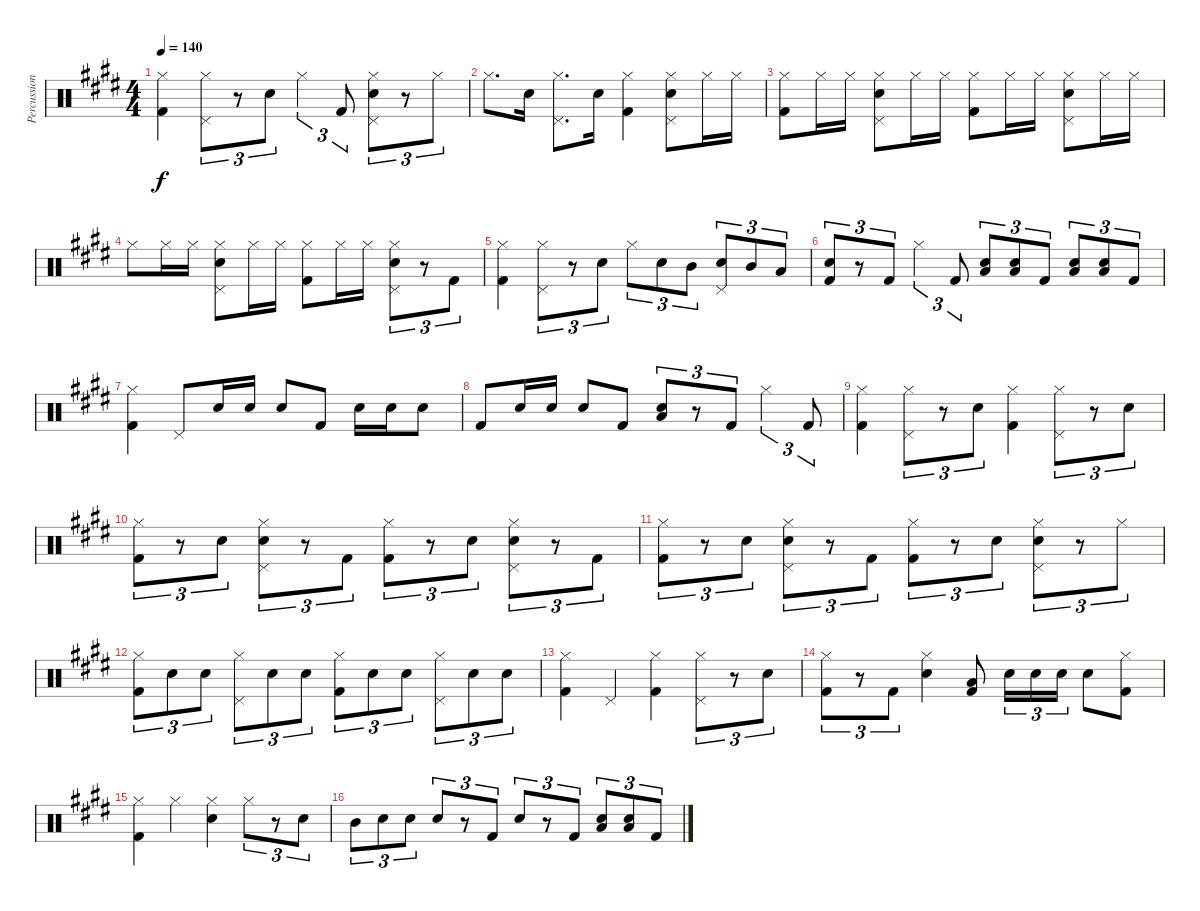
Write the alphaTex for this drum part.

\track ("Percussion" "Percussion") {instrument percussion}
\staff {score}
\articulation defaults
\ts (4 4)
\tempo 140
\clef neutral
\ks e
("Hi-Hat (closed)" "Kick (hit) 2").4{dy f} ("Hi-Hat (closed)" "Pedal Hi-Hat (hit)").8{tu (3 2)} r.8{tu (3 2)} "Snare (hit) 2".8{tu (3 2)} "Hi-Hat (closed)".4{tu (3 2)} "Kick (hit) 2".8{tu (3 2)} ("Hi-Hat (closed)" "Snare (hit) 2" "Pedal Hi-Hat (hit)").8{tu (3 2)} r.8{tu (3 2)} "Hi-Hat (closed)".8{tu (3 2)} |
"Hi-Hat (closed)".8{d} "Snare (hit) 2".16 ("Hi-Hat (closed)" "Pedal Hi-Hat (hit)").8{d} "Snare (hit) 2".16 ("Hi-Hat (closed)" "Kick (hit) 2").4 ("Hi-Hat (closed)" "Snare (hit) 2" "Pedal Hi-Hat (hit)").8 "Hi-Hat (closed)".16 "Hi-Hat (closed)".16 |
("Hi-Hat (closed)" "Kick (hit) 2").8 "Hi-Hat (closed)".16 "Hi-Hat (closed)".16 ("Hi-Hat (closed)" "Snare (hit) 2" "Pedal Hi-Hat (hit)").8 "Hi-Hat (closed)".16 "Hi-Hat (closed)".16 ("Hi-Hat (closed)" "Kick (hit) 2").8 "Hi-Hat (closed)".16 "Hi-Hat (closed)".16 ("Hi-Hat (closed)" "Snare (hit) 2" "Pedal Hi-Hat (hit)").8 "Hi-Hat (closed)".16 "Hi-Hat (closed)".16 |
"Hi-Hat (closed)".8 "Hi-Hat (closed)".16 "Hi-Hat (closed)".16 ("Hi-Hat (closed)" "Snare (hit) 2" "Pedal Hi-Hat (hit)").8 "Hi-Hat (closed)".16 "Hi-Hat (closed)".16 ("Hi-Hat (closed)" "Kick (hit) 2").8 "Hi-Hat (closed)".16 "Hi-Hat (closed)".16 ("Hi-Hat (closed)" "Snare (hit) 2" "Pedal Hi-Hat (hit)").8{tu (3 2)} r.8{tu (3 2)} "Kick (hit) 2".8{tu (3 2)} |
("Hi-Hat (closed)" "Kick (hit) 2").4 ("Hi-Hat (closed)" "Pedal Hi-Hat (hit)").8{tu (3 2)} r.8{tu (3 2)} "Snare (hit) 2".8{tu (3 2)} "Hi-Hat (closed)".8{tu (3 2)} "Snare (hit) 2".8{tu (3 2)} "Mid Tom (hit)".8{tu (3 2)} ("Snare (hit) 2" "Pedal Hi-Hat (hit)").8{tu (3 2)} "Mid Tom (hit)".8{tu (3 2)} "Low Tom (hit)".8{tu (3 2)} |
("Snare (hit) 2" "Kick (hit) 2").8{tu (3 2)} r.8{tu (3 2)} "Kick (hit) 2".8{tu (3 2)} "Hi-Hat (closed)".4{tu (3 2)} "Kick (hit) 2".8{tu (3 2)} ("Snare (hit) 2" "Low Floor Tom (hit)").8{tu (3 2)} ("Snare (hit) 2" "Low Floor Tom (hit)").8{tu (3 2)} "Kick (hit) 2".8{tu (3 2)} ("Snare (hit) 2" "Low Floor Tom (hit)").8{tu (3 2)} ("Snare (hit) 2" "Low Floor Tom (hit)").8{tu (3 2)} "Kick (hit) 2".8{tu (3 2)} |
("Hi-Hat (closed)" "Kick (hit) 2").4 "Pedal Hi-Hat (hit)".8 "Snare (hit) 2".16 "Snare (hit) 2".16 "Snare (hit) 2".8 "Kick (hit) 2".8 "Snare (hit) 2".16 "Snare (hit) 2".16 "Snare (hit) 2".8 |
"Kick (hit) 2".8 "Snare (hit) 2".16 "Snare (hit) 2".16 "Snare (hit) 2".8 "Kick (hit) 2".8 ("Snare (hit) 2" "Low Floor Tom (hit)").8{tu (3 2)} r.8{tu (3 2)} "Kick (hit) 2".8{tu (3 2)} "Hi-Hat (closed)".4{tu (3 2)} "Kick (hit) 2".8{tu (3 2)} |
("Hi-Hat (closed)" "Kick (hit) 2").4 ("Hi-Hat (closed)" "Pedal Hi-Hat (hit)").8{tu (3 2)} r.8{tu (3 2)} "Snare (hit) 2".8{tu (3 2)} ("Hi-Hat (closed)" "Kick (hit) 2").4 ("Hi-Hat (closed)" "Pedal Hi-Hat (hit)").8{tu (3 2)} r.8{tu (3 2)} "Snare (hit) 2".8{tu (3 2)} |
("Hi-Hat (closed)" "Kick (hit) 2").8{tu (3 2)} r.8{tu (3 2)} "Snare (hit) 2".8{tu (3 2)} ("Hi-Hat (closed)" "Snare (hit) 2" "Pedal Hi-Hat (hit)").8{tu (3 2)} r.8{tu (3 2)} "Kick (hit) 2".8{tu (3 2)} ("Hi-Hat (closed)" "Kick (hit) 2").8{tu (3 2)} r.8{tu (3 2)} "Snare (hit) 2".8{tu (3 2)} ("Hi-Hat (closed)" "Snare (hit) 2" "Pedal Hi-Hat (hit)").8{tu (3 2)} r.8{tu (3 2)} "Kick (hit) 2".8{tu (3 2)} |
("Hi-Hat (closed)" "Kick (hit) 2").8{tu (3 2)} r.8{tu (3 2)} "Snare (hit) 2".8{tu (3 2)} ("Hi-Hat (closed)" "Snare (hit) 2" "Pedal Hi-Hat (hit)").8{tu (3 2)} r.8{tu (3 2)} "Kick (hit) 2".8{tu (3 2)} ("Hi-Hat (closed)" "Kick (hit) 2").8{tu (3 2)} r.8{tu (3 2)} "Snare (hit) 2".8{tu (3 2)} ("Hi-Hat (closed)" "Snare (hit) 2" "Pedal Hi-Hat (hit)").8{tu (3 2)} r.8{tu (3 2)} "Hi-Hat (closed)".8{tu (3 2)} |
("Hi-Hat (closed)" "Kick (hit) 2").8{tu (3 2)} "Snare (hit) 2".8{tu (3 2)} "Snare (hit) 2".8{tu (3 2)} ("Hi-Hat (closed)" "Pedal Hi-Hat (hit)").8{tu (3 2)} "Snare (hit) 2".8{tu (3 2)} "Snare (hit) 2".8{tu (3 2)} ("Hi-Hat (closed)" "Kick (hit) 2").8{tu (3 2)} "Snare (hit) 2".8{tu (3 2)} "Snare (hit) 2".8{tu (3 2)} ("Hi-Hat (closed)" "Pedal Hi-Hat (hit)").8{tu (3 2)} "Snare (hit) 2".8{tu (3 2)} "Snare (hit) 2".8{tu (3 2)} |
("Hi-Hat (closed)" "Kick (hit) 2").4 "Pedal Hi-Hat (hit)".4 ("Hi-Hat (closed)" "Kick (hit) 2").4 ("Hi-Hat (closed)" "Pedal Hi-Hat (hit)").8{tu (3 2)} r.8{tu (3 2)} "Snare (hit) 2".8{tu (3 2)} |
("Hi-Hat (closed)" "Kick (hit) 2").8{tu (3 2)} r.8{tu (3 2)} "Kick (hit) 2".8{tu (3 2)} ("Hi-Hat (closed)" "Snare (hit) 2").4 ("Low Floor Tom (hit)" "Kick (hit) 2").8 "Snare (hit) 2".16{tu (3 2)} "Snare (hit) 2".16{tu (3 2)} "Snare (hit) 2".16{tu (3 2)} "Snare (hit) 2".8 ("Hi-Hat (closed)" "Kick (hit) 2").8 |
("Hi-Hat (closed)" "Kick (hit) 2").4 "Hi-Hat (closed)".4 ("Hi-Hat (closed)" "Snare (hit) 2").4 "Hi-Hat (closed)".8{tu (3 2)} r.8{tu (3 2)} "Snare (hit) 2".8{tu (3 2)} |
"Mid Tom (hit)".8{tu (3 2)} "Snare (hit) 2".8{tu (3 2)} "Snare (hit) 2".8{tu (3 2)} "Snare (hit) 2".8{tu (3 2)} r.8{tu (3 2)} "Kick (hit) 2".8{tu (3 2)} "Snare (hit) 2".8{tu (3 2)} r.8{tu (3 2)} "Kick (hit) 2".8{tu (3 2)} ("Snare (hit) 2" "Low Floor Tom (hit)").8{tu (3 2)} ("Snare (hit) 2" "Low Floor Tom (hit)").8{tu (3 2)} "Kick (hit) 2".8{tu (3 2)}
